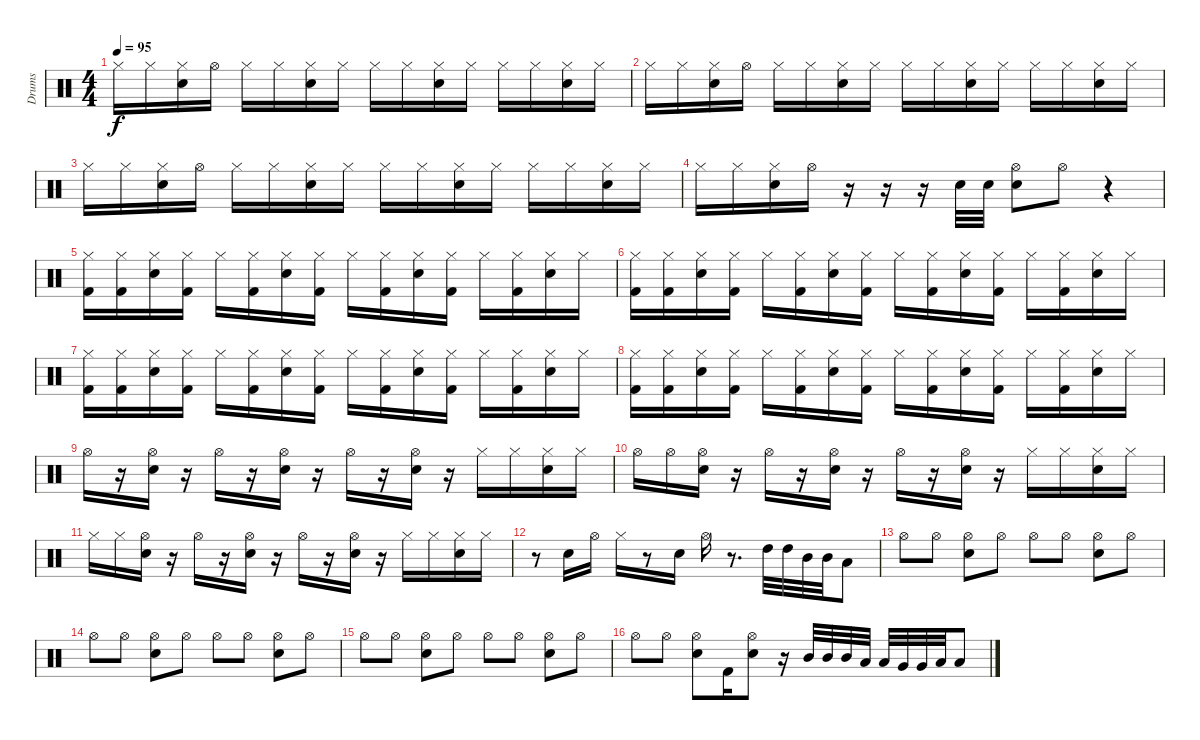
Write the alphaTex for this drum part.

\track ("Drums" "Drums") {instrument percussion}
\staff {score}
\articulation defaults
\ts (4 4)
\tempo 95
\clef neutral
\ks c "Hi-Hat (closed)".16{dy f} "Hi-Hat (closed)".16
("Hi-Hat (closed)" "Electric Snare (hit)").16 "Hi-Hat (open)".16 "Hi-Hat (closed)".16 "Hi-Hat (closed)".16 ("Hi-Hat (closed)" "Electric Snare (hit)").16 "Hi-Hat (closed)".16 "Hi-Hat (closed)".16 "Hi-Hat (closed)".16 ("Hi-Hat (closed)" "Electric Snare (hit)").16 "Hi-Hat (closed)".16 "Hi-Hat (closed)".16 "Hi-Hat (closed)".16 ("Hi-Hat (closed)" "Electric Snare (hit)").16 "Hi-Hat (closed)".16 |
"Hi-Hat (closed)".16 "Hi-Hat (closed)".16 ("Hi-Hat (closed)" "Electric Snare (hit)").16 "Hi-Hat (open)".16 "Hi-Hat (closed)".16 "Hi-Hat (closed)".16 ("Hi-Hat (closed)" "Electric Snare (hit)").16 "Hi-Hat (closed)".16 "Hi-Hat (closed)".16 "Hi-Hat (closed)".16 ("Hi-Hat (closed)" "Electric Snare (hit)").16 "Hi-Hat (closed)".16 "Hi-Hat (closed)".16 "Hi-Hat (closed)".16 ("Hi-Hat (closed)" "Electric Snare (hit)").16 "Hi-Hat (closed)".16 |
"Hi-Hat (closed)".16 "Hi-Hat (closed)".16 ("Hi-Hat (closed)" "Electric Snare (hit)").16 "Hi-Hat (open)".16 "Hi-Hat (closed)".16 "Hi-Hat (closed)".16 ("Hi-Hat (closed)" "Electric Snare (hit)").16 "Hi-Hat (closed)".16 "Hi-Hat (closed)".16 "Hi-Hat (closed)".16 ("Hi-Hat (closed)" "Electric Snare (hit)").16 "Hi-Hat (closed)".16 "Hi-Hat (closed)".16 "Hi-Hat (closed)".16 ("Hi-Hat (closed)" "Electric Snare (hit)").16 "Hi-Hat (closed)".16 |
"Hi-Hat (closed)".16 "Hi-Hat (closed)".16 ("Hi-Hat (closed)" "Electric Snare (hit)").16 "Hi-Hat (open)".16 r.16 r.16 r.16 "Electric Snare (hit)".32 "Electric Snare (hit)".32 ("Hi-Hat (open)" "Electric Snare (hit)").8 "Hi-Hat (open)".8 r.4 |
("Hi-Hat (closed)" "Kick (hit) 2").16 ("Hi-Hat (closed)" "Kick (hit) 2").16 ("Hi-Hat (closed)" "Electric Snare (hit)").16 ("Hi-Hat (closed)" "Kick (hit) 2").16 "Hi-Hat (closed)".16 ("Hi-Hat (closed)" "Kick (hit) 2").16 ("Hi-Hat (closed)" "Electric Snare (hit)").16 ("Hi-Hat (closed)" "Kick (hit) 2").16 "Hi-Hat (closed)".16 ("Hi-Hat (closed)" "Kick (hit) 2").16 ("Hi-Hat (closed)" "Electric Snare (hit)").16 ("Hi-Hat (closed)" "Kick (hit) 2").16 "Hi-Hat (closed)".16 ("Hi-Hat (closed)" "Kick (hit) 2").16 ("Hi-Hat (closed)" "Electric Snare (hit)").16 "Hi-Hat (closed)".16 |
("Hi-Hat (closed)" "Kick (hit) 2").16 ("Hi-Hat (closed)" "Kick (hit) 2").16 ("Hi-Hat (closed)" "Electric Snare (hit)").16 ("Hi-Hat (closed)" "Kick (hit) 2").16 "Hi-Hat (closed)".16 ("Hi-Hat (closed)" "Kick (hit) 2").16 ("Hi-Hat (closed)" "Electric Snare (hit)").16 ("Hi-Hat (closed)" "Kick (hit) 2").16 "Hi-Hat (closed)".16 ("Hi-Hat (closed)" "Kick (hit) 2").16 ("Hi-Hat (closed)" "Electric Snare (hit)").16 ("Hi-Hat (closed)" "Kick (hit) 2").16 "Hi-Hat (closed)".16 ("Hi-Hat (closed)" "Kick (hit) 2").16 ("Hi-Hat (closed)" "Electric Snare (hit)").16 "Hi-Hat (closed)".16 |
("Hi-Hat (closed)" "Kick (hit) 2").16 ("Hi-Hat (closed)" "Kick (hit) 2").16 ("Hi-Hat (closed)" "Electric Snare (hit)").16 ("Hi-Hat (closed)" "Kick (hit) 2").16 "Hi-Hat (closed)".16 ("Hi-Hat (closed)" "Kick (hit) 2").16 ("Hi-Hat (closed)" "Electric Snare (hit)").16 ("Hi-Hat (closed)" "Kick (hit) 2").16 "Hi-Hat (closed)".16 ("Hi-Hat (closed)" "Kick (hit) 2").16 ("Hi-Hat (closed)" "Electric Snare (hit)").16 ("Hi-Hat (closed)" "Kick (hit) 2").16 "Hi-Hat (closed)".16 ("Hi-Hat (closed)" "Kick (hit) 2").16 ("Hi-Hat (closed)" "Electric Snare (hit)").16 "Hi-Hat (closed)".16 |
("Hi-Hat (closed)" "Kick (hit) 2").16 ("Hi-Hat (closed)" "Kick (hit) 2").16 ("Hi-Hat (closed)" "Electric Snare (hit)").16 ("Hi-Hat (closed)" "Kick (hit) 2").16 "Hi-Hat (closed)".16 ("Hi-Hat (closed)" "Kick (hit) 2").16 ("Hi-Hat (closed)" "Electric Snare (hit)").16 ("Hi-Hat (closed)" "Kick (hit) 2").16 "Hi-Hat (closed)".16 ("Hi-Hat (closed)" "Kick (hit) 2").16 ("Hi-Hat (closed)" "Electric Snare (hit)").16 ("Hi-Hat (closed)" "Kick (hit) 2").16 "Hi-Hat (closed)".16 ("Hi-Hat (closed)" "Kick (hit) 2").16 ("Hi-Hat (closed)" "Electric Snare (hit)").16 "Hi-Hat (closed)".16 |
"Hi-Hat (open)".16 r.16 ("Hi-Hat (open)" "Electric Snare (hit)").16 r.16 "Hi-Hat (open)".16 r.16 ("Hi-Hat (open)" "Electric Snare (hit)").16 r.16 "Hi-Hat (open)".16 r.16 ("Hi-Hat (open)" "Electric Snare (hit)").16 r.16 "Hi-Hat (closed)".16 "Hi-Hat (closed)".16 ("Hi-Hat (closed)" "Electric Snare (hit)").16 "Hi-Hat (closed)".16 |
"Hi-Hat (open)".16 "Hi-Hat (open)".16 ("Hi-Hat (open)" "Electric Snare (hit)").16 r.16 "Hi-Hat (open)".16 r.16 ("Hi-Hat (open)" "Electric Snare (hit)").16 r.16 "Hi-Hat (open)".16 r.16 ("Hi-Hat (open)" "Electric Snare (hit)").16 r.16 "Hi-Hat (closed)".16 "Hi-Hat (closed)".16 ("Hi-Hat (closed)" "Electric Snare (hit)").16 "Hi-Hat (closed)".16 |
"Hi-Hat (closed)".16 "Hi-Hat (closed)".16 ("Hi-Hat (open)" "Electric Snare (hit)").16 r.16 "Hi-Hat (open)".16 r.16 ("Hi-Hat (open)" "Electric Snare (hit)").16 r.16 "Hi-Hat (open)".16 r.16 ("Hi-Hat (open)" "Electric Snare (hit)").16 r.16 "Hi-Hat (closed)".16 "Hi-Hat (closed)".16 ("Hi-Hat (closed)" "Electric Snare (hit)").16 "Hi-Hat (closed)".16 |
r.8 "Electric Snare (hit)".16 "Hi-Hat (open)".16 "Hi-Hat (closed)".16 r.8 "Electric Snare (hit)".16 "Hi-Hat (open)".16 r.8{d} "High Tom (hit)".32 "High Tom (hit)".32 "Mid Tom (hit)".32 "Mid Tom (hit)".32 "Low Tom (hit)".8 |
"Hi-Hat (open)".8 "Hi-Hat (open)".8 ("Hi-Hat (open)" "Electric Snare (hit)").8 "Hi-Hat (open)".8 "Hi-Hat (open)".8 "Hi-Hat (open)".8 ("Hi-Hat (open)" "Electric Snare (hit)").8 "Hi-Hat (open)".8 |
"Hi-Hat (open)".8 "Hi-Hat (open)".8 ("Hi-Hat (open)" "Electric Snare (hit)").8 "Hi-Hat (open)".8 "Hi-Hat (open)".8 "Hi-Hat (open)".8 ("Hi-Hat (open)" "Electric Snare (hit)").8 "Hi-Hat (open)".8 |
"Hi-Hat (open)".8 "Hi-Hat (open)".8 ("Hi-Hat (open)" "Electric Snare (hit)").8 "Hi-Hat (open)".8 "Hi-Hat (open)".8 "Hi-Hat (open)".8 ("Hi-Hat (open)" "Electric Snare (hit)").8 "Hi-Hat (open)".8 |
"Hi-Hat (open)".8 "Hi-Hat (open)".8 ("Hi-Hat (open)" "Electric Snare (hit)").8 "Kick (hit) 2".16 ("Hi-Hat (open)" "Electric Snare (hit)").8 r.16 "Mid Tom (hit)".32 "Mid Tom (hit)".32 "Mid Tom (hit)".32 "Low Tom (hit)".32 "Low Tom (hit)".32 "Very Low Tom (hit)".32 "Very Low Tom (hit)".32 "Low Floor Tom (hit)".32 "Low Floor Tom (hit)".8
